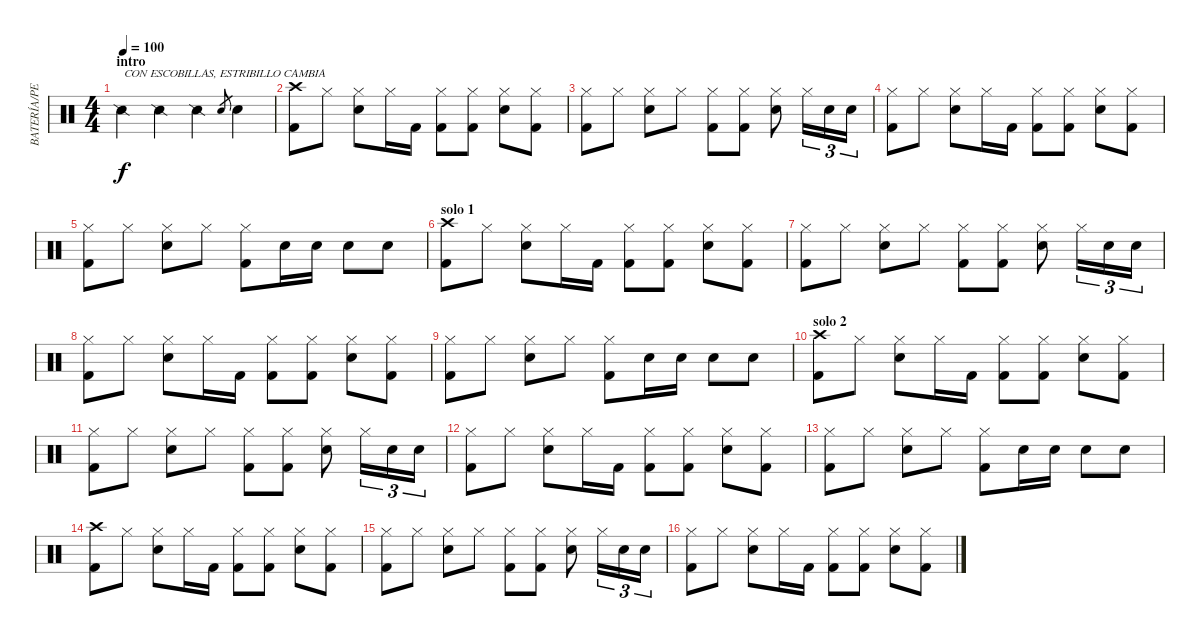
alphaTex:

\track ("BATERÍA/PERCUSIÓN" "BATERÍA/PE") {instrument percussion}
\staff {score}
\articulation defaults
\ts (4 4)
\section ("" "intro")
\tempo 100
\clef neutral
\ks c "Snare (side stick) 2".4{txt "CON ESCOBILLAS, ESTRIBILLO CAMBIA" dy f} "Snare (side stick) 2".4 "Snare (side stick) 2".4 "Hand Clap (hit)".8{gr} "Hand Clap (hit)".4
|
("Kick (hit) 2" "Crash high (hit)").8 "Hi-Hat (closed)".8 ("Hand Clap (hit)" "Hi-Hat (closed)").8 "Hi-Hat (closed)".16 "Kick (hit) 2".16 ("Kick (hit) 2" "Hi-Hat (closed)").8 ("Kick (hit) 2" "Hi-Hat (closed)").8 ("Hand Clap (hit)" "Hi-Hat (closed)").8 ("Kick (hit) 2" "Hi-Hat (closed)").8 |
("Hi-Hat (closed)" "Kick (hit) 2").8 "Hi-Hat (closed)".8 ("Hand Clap (hit)" "Hi-Hat (closed)").8 "Hi-Hat (closed)".8 ("Hi-Hat (closed)" "Kick (hit) 2").8 ("Hi-Hat (closed)" "Kick (hit) 2").8 ("Hi-Hat (closed)" "Hand Clap (hit)").8 "Hi-Hat (closed)".16{tu (3 2)} "Hand Clap (hit)".16{tu (3 2)} "Hand Clap (hit)".16{tu (3 2)} |
("Kick (hit) 2" "Hi-Hat (closed)").8 "Hi-Hat (closed)".8 ("Hand Clap (hit)" "Hi-Hat (closed)").8 "Hi-Hat (closed)".16 "Kick (hit) 2".16 ("Kick (hit) 2" "Hi-Hat (closed)").8 ("Kick (hit) 2" "Hi-Hat (closed)").8 ("Hand Clap (hit)" "Hi-Hat (closed)").8 ("Kick (hit) 2" "Hi-Hat (closed)").8 |
("Hi-Hat (closed)" "Kick (hit) 2").8 "Hi-Hat (closed)".8 ("Hand Clap (hit)" "Hi-Hat (closed)").8 "Hi-Hat (closed)".8 ("Hi-Hat (closed)" "Kick (hit) 2").8 "Hand Clap (hit)".16 "Hand Clap (hit)".16 "Hand Clap (hit)".8 "Hand Clap (hit)".8 |
\section ("" "solo 1")
("Kick (hit) 2" "Crash high (hit)").8 "Hi-Hat (closed)".8 ("Hand Clap (hit)" "Hi-Hat (closed)").8 "Hi-Hat (closed)".16 "Kick (hit) 2".16 ("Kick (hit) 2" "Hi-Hat (closed)").8 ("Kick (hit) 2" "Hi-Hat (closed)").8 ("Hand Clap (hit)" "Hi-Hat (closed)").8 ("Kick (hit) 2" "Hi-Hat (closed)").8 |
("Hi-Hat (closed)" "Kick (hit) 2").8 "Hi-Hat (closed)".8 ("Hand Clap (hit)" "Hi-Hat (closed)").8 "Hi-Hat (closed)".8 ("Hi-Hat (closed)" "Kick (hit) 2").8 ("Hi-Hat (closed)" "Kick (hit) 2").8 ("Hi-Hat (closed)" "Hand Clap (hit)").8 "Hi-Hat (closed)".16{tu (3 2)} "Hand Clap (hit)".16{tu (3 2)} "Hand Clap (hit)".16{tu (3 2)} |
("Kick (hit) 2" "Hi-Hat (closed)").8 "Hi-Hat (closed)".8 ("Hand Clap (hit)" "Hi-Hat (closed)").8 "Hi-Hat (closed)".16 "Kick (hit) 2".16 ("Kick (hit) 2" "Hi-Hat (closed)").8 ("Kick (hit) 2" "Hi-Hat (closed)").8 ("Hand Clap (hit)" "Hi-Hat (closed)").8 ("Kick (hit) 2" "Hi-Hat (closed)").8 |
("Hi-Hat (closed)" "Kick (hit) 2").8 "Hi-Hat (closed)".8 ("Hand Clap (hit)" "Hi-Hat (closed)").8 "Hi-Hat (closed)".8 ("Hi-Hat (closed)" "Kick (hit) 2").8 "Hand Clap (hit)".16 "Hand Clap (hit)".16 "Hand Clap (hit)".8 "Hand Clap (hit)".8 |
\section ("" "solo 2")
("Kick (hit) 2" "Crash high (hit)").8 "Hi-Hat (closed)".8 ("Hand Clap (hit)" "Hi-Hat (closed)").8 "Hi-Hat (closed)".16 "Kick (hit) 2".16 ("Kick (hit) 2" "Hi-Hat (closed)").8 ("Kick (hit) 2" "Hi-Hat (closed)").8 ("Hand Clap (hit)" "Hi-Hat (closed)").8 ("Kick (hit) 2" "Hi-Hat (closed)").8 |
("Hi-Hat (closed)" "Kick (hit) 2").8 "Hi-Hat (closed)".8 ("Hand Clap (hit)" "Hi-Hat (closed)").8 "Hi-Hat (closed)".8 ("Hi-Hat (closed)" "Kick (hit) 2").8 ("Hi-Hat (closed)" "Kick (hit) 2").8 ("Hi-Hat (closed)" "Hand Clap (hit)").8 "Hi-Hat (closed)".16{tu (3 2)} "Hand Clap (hit)".16{tu (3 2)} "Hand Clap (hit)".16{tu (3 2)} |
("Kick (hit) 2" "Hi-Hat (closed)").8 "Hi-Hat (closed)".8 ("Hand Clap (hit)" "Hi-Hat (closed)").8 "Hi-Hat (closed)".16 "Kick (hit) 2".16 ("Kick (hit) 2" "Hi-Hat (closed)").8 ("Kick (hit) 2" "Hi-Hat (closed)").8 ("Hand Clap (hit)" "Hi-Hat (closed)").8 ("Kick (hit) 2" "Hi-Hat (closed)").8 |
("Hi-Hat (closed)" "Kick (hit) 2").8 "Hi-Hat (closed)".8 ("Hand Clap (hit)" "Hi-Hat (closed)").8 "Hi-Hat (closed)".8 ("Hi-Hat (closed)" "Kick (hit) 2").8 "Hand Clap (hit)".16 "Hand Clap (hit)".16 "Hand Clap (hit)".8 "Hand Clap (hit)".8 |
("Kick (hit) 2" "Crash high (hit)").8 "Hi-Hat (closed)".8 ("Hand Clap (hit)" "Hi-Hat (closed)").8 "Hi-Hat (closed)".16 "Kick (hit) 2".16 ("Kick (hit) 2" "Hi-Hat (closed)").8 ("Kick (hit) 2" "Hi-Hat (closed)").8 ("Hand Clap (hit)" "Hi-Hat (closed)").8 ("Kick (hit) 2" "Hi-Hat (closed)").8 |
("Hi-Hat (closed)" "Kick (hit) 2").8 "Hi-Hat (closed)".8 ("Hand Clap (hit)" "Hi-Hat (closed)").8 "Hi-Hat (closed)".8 ("Hi-Hat (closed)" "Kick (hit) 2").8 ("Hi-Hat (closed)" "Kick (hit) 2").8 ("Hi-Hat (closed)" "Hand Clap (hit)").8 "Hi-Hat (closed)".16{tu (3 2)} "Hand Clap (hit)".16{tu (3 2)} "Hand Clap (hit)".16{tu (3 2)} |
("Kick (hit) 2" "Hi-Hat (closed)").8 "Hi-Hat (closed)".8 ("Hand Clap (hit)" "Hi-Hat (closed)").8 "Hi-Hat (closed)".16 "Kick (hit) 2".16 ("Kick (hit) 2" "Hi-Hat (closed)").8 ("Kick (hit) 2" "Hi-Hat (closed)").8 ("Hand Clap (hit)" "Hi-Hat (closed)").8 ("Kick (hit) 2" "Hi-Hat (closed)").8
